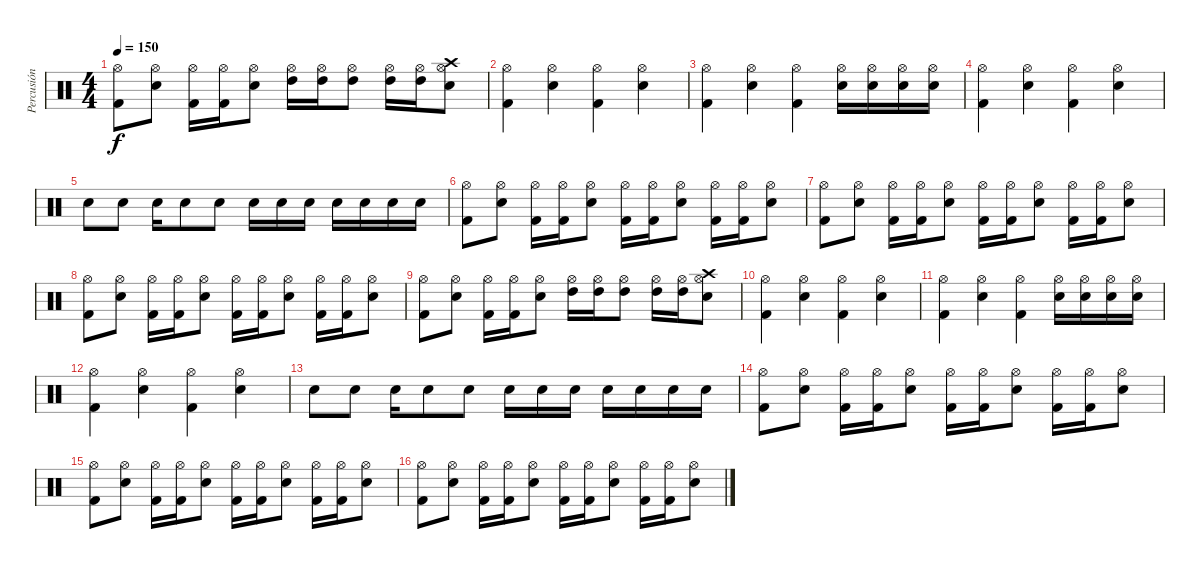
\track ("Percusión" "Percusión") {instrument percussion}
\staff {score}
\articulation defaults
\ts (4 4)
\tempo 150
\clef neutral
\ks c
("Kick (hit) 2" "Hi-Hat (open)").8{dy f} ("Electric Snare (hit)" "Hi-Hat (open)").8 ("Kick (hit) 2" "Hi-Hat (open)").16 ("Kick (hit) 2" "Hi-Hat (open)").16 ("Electric Snare (hit)" "Hi-Hat (open)").8 ("High Tom (hit)" "Hi-Hat (open)").16 ("High Tom (hit)" "Hi-Hat (open)").16 ("High Tom (hit)" "Hi-Hat (open)").8 ("High Tom (hit)" "Hi-Hat (open)").16 ("High Tom (hit)" "Hi-Hat (open)").16 ("Crash high (hit)" "Electric Snare (hit)" "Hi-Hat (open)").8 |
("Hi-Hat (open)" "Kick (hit) 2").4 ("Hi-Hat (open)" "Electric Snare (hit)").4 ("Hi-Hat (open)" "Kick (hit) 2").4 ("Hi-Hat (open)" "Electric Snare (hit)").4 |
("Hi-Hat (open)" "Kick (hit) 2").4 ("Hi-Hat (open)" "Electric Snare (hit)").4 ("Hi-Hat (open)" "Kick (hit) 2").4 ("Hi-Hat (open)" "Electric Snare (hit)").16 ("Hi-Hat (open)" "Electric Snare (hit)").16 ("Hi-Hat (open)" "Electric Snare (hit)").16 ("Hi-Hat (open)" "Electric Snare (hit)").16 |
("Hi-Hat (open)" "Kick (hit) 2").4 ("Hi-Hat (open)" "Electric Snare (hit)").4 ("Hi-Hat (open)" "Kick (hit) 2").4 ("Hi-Hat (open)" "Electric Snare (hit)").4 |
"Electric Snare (hit)".8 "Electric Snare (hit)".8 "Electric Snare (hit)".16 "Electric Snare (hit)".8 "Electric Snare (hit)".8 "Electric Snare (hit)".16 "Electric Snare (hit)".16 "Electric Snare (hit)".16 "Electric Snare (hit)".16 "Electric Snare (hit)".16 "Electric Snare (hit)".16 "Electric Snare (hit)".16 |
("Kick (hit) 2" "Hi-Hat (open)").8 ("Electric Snare (hit)" "Hi-Hat (open)").8 ("Kick (hit) 2" "Hi-Hat (open)").16 ("Kick (hit) 2" "Hi-Hat (open)").16 ("Electric Snare (hit)" "Hi-Hat (open)").8 ("Kick (hit) 2" "Hi-Hat (open)").16 ("Kick (hit) 2" "Hi-Hat (open)").16 ("Electric Snare (hit)" "Hi-Hat (open)").8 ("Kick (hit) 2" "Hi-Hat (open)").16 ("Kick (hit) 2" "Hi-Hat (open)").16 ("Electric Snare (hit)" "Hi-Hat (open)").8 |
("Kick (hit) 2" "Hi-Hat (open)").8 ("Electric Snare (hit)" "Hi-Hat (open)").8 ("Kick (hit) 2" "Hi-Hat (open)").16 ("Kick (hit) 2" "Hi-Hat (open)").16 ("Electric Snare (hit)" "Hi-Hat (open)").8 ("Kick (hit) 2" "Hi-Hat (open)").16 ("Kick (hit) 2" "Hi-Hat (open)").16 ("Electric Snare (hit)" "Hi-Hat (open)").8 ("Kick (hit) 2" "Hi-Hat (open)").16 ("Kick (hit) 2" "Hi-Hat (open)").16 ("Electric Snare (hit)" "Hi-Hat (open)").8 |
("Kick (hit) 2" "Hi-Hat (open)").8 ("Electric Snare (hit)" "Hi-Hat (open)").8 ("Kick (hit) 2" "Hi-Hat (open)").16 ("Kick (hit) 2" "Hi-Hat (open)").16 ("Electric Snare (hit)" "Hi-Hat (open)").8 ("Kick (hit) 2" "Hi-Hat (open)").16 ("Kick (hit) 2" "Hi-Hat (open)").16 ("Electric Snare (hit)" "Hi-Hat (open)").8 ("Kick (hit) 2" "Hi-Hat (open)").16 ("Kick (hit) 2" "Hi-Hat (open)").16 ("Electric Snare (hit)" "Hi-Hat (open)").8 |
("Kick (hit) 2" "Hi-Hat (open)").8 ("Electric Snare (hit)" "Hi-Hat (open)").8 ("Kick (hit) 2" "Hi-Hat (open)").16 ("Kick (hit) 2" "Hi-Hat (open)").16 ("Electric Snare (hit)" "Hi-Hat (open)").8 ("High Tom (hit)" "Hi-Hat (open)").16 ("High Tom (hit)" "Hi-Hat (open)").16 ("High Tom (hit)" "Hi-Hat (open)").8 ("High Tom (hit)" "Hi-Hat (open)").16 ("High Tom (hit)" "Hi-Hat (open)").16 ("Crash high (hit)" "Electric Snare (hit)" "Hi-Hat (open)").8 |
("Hi-Hat (open)" "Kick (hit) 2").4 ("Hi-Hat (open)" "Electric Snare (hit)").4 ("Hi-Hat (open)" "Kick (hit) 2").4 ("Hi-Hat (open)" "Electric Snare (hit)").4 |
("Hi-Hat (open)" "Kick (hit) 2").4 ("Hi-Hat (open)" "Electric Snare (hit)").4 ("Hi-Hat (open)" "Kick (hit) 2").4 ("Hi-Hat (open)" "Electric Snare (hit)").16 ("Hi-Hat (open)" "Electric Snare (hit)").16 ("Hi-Hat (open)" "Electric Snare (hit)").16 ("Hi-Hat (open)" "Electric Snare (hit)").16 |
("Hi-Hat (open)" "Kick (hit) 2").4 ("Hi-Hat (open)" "Electric Snare (hit)").4 ("Hi-Hat (open)" "Kick (hit) 2").4 ("Hi-Hat (open)" "Electric Snare (hit)").4 |
"Electric Snare (hit)".8 "Electric Snare (hit)".8 "Electric Snare (hit)".16 "Electric Snare (hit)".8 "Electric Snare (hit)".8 "Electric Snare (hit)".16 "Electric Snare (hit)".16 "Electric Snare (hit)".16 "Electric Snare (hit)".16 "Electric Snare (hit)".16 "Electric Snare (hit)".16 "Electric Snare (hit)".16 |
("Kick (hit) 2" "Hi-Hat (open)").8 ("Electric Snare (hit)" "Hi-Hat (open)").8 ("Kick (hit) 2" "Hi-Hat (open)").16 ("Kick (hit) 2" "Hi-Hat (open)").16 ("Electric Snare (hit)" "Hi-Hat (open)").8 ("Kick (hit) 2" "Hi-Hat (open)").16 ("Kick (hit) 2" "Hi-Hat (open)").16 ("Electric Snare (hit)" "Hi-Hat (open)").8 ("Kick (hit) 2" "Hi-Hat (open)").16 ("Kick (hit) 2" "Hi-Hat (open)").16 ("Electric Snare (hit)" "Hi-Hat (open)").8 |
("Kick (hit) 2" "Hi-Hat (open)").8 ("Electric Snare (hit)" "Hi-Hat (open)").8 ("Kick (hit) 2" "Hi-Hat (open)").16 ("Kick (hit) 2" "Hi-Hat (open)").16 ("Electric Snare (hit)" "Hi-Hat (open)").8 ("Kick (hit) 2" "Hi-Hat (open)").16 ("Kick (hit) 2" "Hi-Hat (open)").16 ("Electric Snare (hit)" "Hi-Hat (open)").8 ("Kick (hit) 2" "Hi-Hat (open)").16 ("Kick (hit) 2" "Hi-Hat (open)").16 ("Electric Snare (hit)" "Hi-Hat (open)").8 |
("Kick (hit) 2" "Hi-Hat (open)").8 ("Electric Snare (hit)" "Hi-Hat (open)").8 ("Kick (hit) 2" "Hi-Hat (open)").16 ("Kick (hit) 2" "Hi-Hat (open)").16 ("Electric Snare (hit)" "Hi-Hat (open)").8 ("Kick (hit) 2" "Hi-Hat (open)").16 ("Kick (hit) 2" "Hi-Hat (open)").16 ("Electric Snare (hit)" "Hi-Hat (open)").8 ("Kick (hit) 2" "Hi-Hat (open)").16 ("Kick (hit) 2" "Hi-Hat (open)").16 ("Electric Snare (hit)" "Hi-Hat (open)").8
